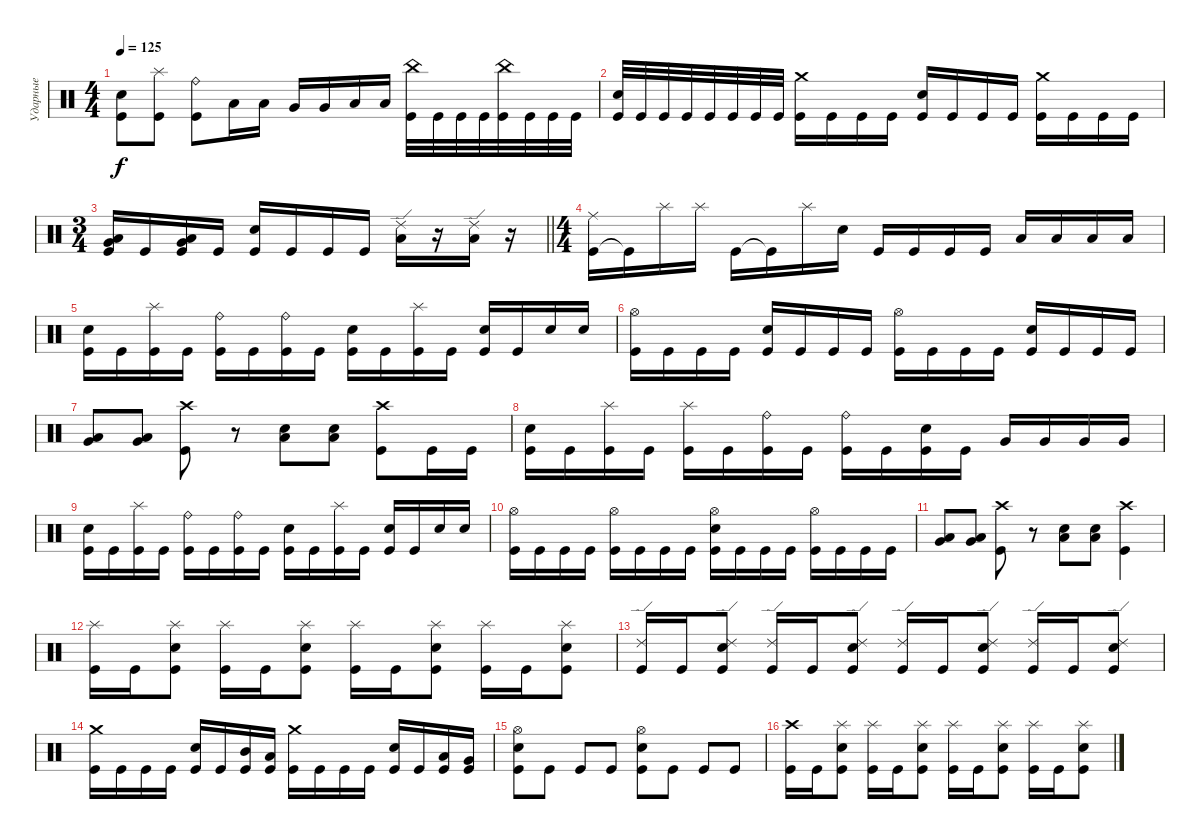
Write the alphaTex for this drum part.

\track ("Ударные" "Ударные") {instrument percussion}
\staff {score}
\articulation defaults
\ts (4 4)
\tempo 125
\clef neutral
\ks c
("Electric Snare (hit)" "Kick (hit)").8{dy f} ("Splash (hit)" "Kick (hit)").8 ("Ride (bell)" "Kick (hit)").8 "Low Tom (hit)".16 "Low Tom (hit)".16 "Very Low Tom (hit)".16 "Very Low Tom (hit)".16 "Low Floor Tom (hit)".16 "Low Floor Tom (hit)".16 ("China (hit)" "Kick (hit)").32 "Kick (hit)".32 "Kick (hit)".32 "Kick (hit)".32 ("China (hit)" "Kick (hit)").32 "Kick (hit)".32 "Kick (hit)".32 "Kick (hit)".32 |
("Electric Snare (hit)" "Kick (hit)").32 "Kick (hit)".32 "Kick (hit)".32 "Kick (hit)".32 "Kick (hit)".32 "Kick (hit)".32 "Kick (hit)".32 "Kick (hit)".32 ("Crash medium (hit)" "Kick (hit)").16 "Kick (hit)".16 "Kick (hit)".16 "Kick (hit)".16 ("Electric Snare (hit)" "Kick (hit)").16 "Kick (hit)".16 "Kick (hit)".16 "Kick (hit)".16 ("Crash medium (hit)" "Kick (hit)").16 "Kick (hit)".16 "Kick (hit)".16 "Kick (hit)".16 |
\ts (3 4)
\barLineRight lightlight
("Low Floor Tom (hit)" "Very Low Tom (hit)" "Kick (hit)").16 "Kick (hit)".16 ("Low Floor Tom (hit)" "Very Low Tom (hit)" "Kick (hit)").16 "Kick (hit)".16 ("Electric Snare (hit)" "Kick (hit)").16 "Kick (hit)".16 "Kick (hit)".16 "Kick (hit)".16 ("Ride (edge) 2" "Low Tom (hit)").16 r.16 ("Ride (edge) 2" "Low Tom (hit)").16 r.16 |
\ts (4 4)
("Kick (hit)" "Ride (middle)").16 "Kick (hit)"{t}.16 "Splash (hit)".16 "Splash (hit)".16 "Kick (hit)".16 "Kick (hit)"{t}.16 "Splash (hit)".16 "Electric Snare (hit)".16 "Kick (hit)".16 "Kick (hit)".16 "Kick (hit)".16 "Kick (hit)".16 "Low Tom (hit)".16 "Low Tom (hit)".16 "Low Tom (hit)".16 "Low Tom (hit)".16 |
("Electric Snare (hit)" "Kick (hit)").16 "Kick (hit)".16 ("Splash (hit)" "Kick (hit)").16 "Kick (hit)".16 ("Ride (bell)" "Kick (hit)").16 "Kick (hit)".16 ("Ride (bell)" "Kick (hit)").16 "Kick (hit)".16 ("Electric Snare (hit)" "Kick (hit)").16 "Kick (hit)".16 ("Splash (hit)" "Kick (hit)").16 "Kick (hit)".16 ("Electric Snare (hit)" "Kick (hit)").16 "Kick (hit)".16 "Electric Snare (hit)".16 "Electric Snare (hit)".16 |
("Hi-Hat (open)" "Kick (hit)").16 "Kick (hit)".16 "Kick (hit)".16 "Kick (hit)".16 ("Electric Snare (hit)" "Kick (hit)").16 "Kick (hit)".16 "Kick (hit)".16 "Kick (hit)".16 ("Hi-Hat (open)" "Kick (hit)").16 "Kick (hit)".16 "Kick (hit)".16 "Kick (hit)".16 ("Electric Snare (hit)" "Kick (hit)").16 "Kick (hit)".16 "Kick (hit)".16 "Kick (hit)".16 |
("Low Tom (hit)" "Very Low Tom (hit)").8 ("Low Tom (hit)" "Very Low Tom (hit)").8 ("Crash high (hit)" "Kick (hit)").8 r.8 ("Electric Snare (hit)" "Low Floor Tom (hit)").8 ("Electric Snare (hit)" "Low Floor Tom (hit)").8 ("Crash high (hit)" "Kick (hit)").8 "Kick (hit)".16 "Kick (hit)".16 |
("Electric Snare (hit)" "Kick (hit)").16 "Kick (hit)".16 ("Splash (hit)" "Kick (hit)").16 "Kick (hit)".16 ("Splash (hit)" "Kick (hit)").16 "Kick (hit)".16 ("Ride (bell)" "Kick (hit)").16 "Kick (hit)".16 ("Ride (bell)" "Kick (hit)").16 "Kick (hit)".16 ("Electric Snare (hit)" "Kick (hit)").16 "Kick (hit)".16 "Very Low Tom (hit)".16 "Very Low Tom (hit)".16 "Very Low Tom (hit)".16 "Very Low Tom (hit)".16 |
("Electric Snare (hit)" "Kick (hit)").16 "Kick (hit)".16 ("Splash (hit)" "Kick (hit)").16 "Kick (hit)".16 ("Ride (bell)" "Kick (hit)").16 "Kick (hit)".16 ("Ride (bell)" "Kick (hit)").16 "Kick (hit)".16 ("Electric Snare (hit)" "Kick (hit)").16 "Kick (hit)".16 ("Splash (hit)" "Kick (hit)").16 "Kick (hit)".16 ("Electric Snare (hit)" "Kick (hit)").16 "Kick (hit)".16 "Electric Snare (hit)".16 "Electric Snare (hit)".16 |
("Hi-Hat (open)" "Kick (hit)").16 "Kick (hit)".16 "Kick (hit)".16 "Kick (hit)".16 ("Hi-Hat (open)" "Kick (hit)").16 "Kick (hit)".16 "Kick (hit)".16 "Kick (hit)".16 ("Hi-Hat (open)" "Electric Snare (hit)" "Kick (hit)").16 "Kick (hit)".16 "Kick (hit)".16 "Kick (hit)".16 ("Hi-Hat (open)" "Kick (hit)").16 "Kick (hit)".16 "Kick (hit)".16 "Kick (hit)".16 |
("Low Tom (hit)" "Very Low Tom (hit)").8 ("Low Tom (hit)" "Very Low Tom (hit)").8 ("Crash high (hit)" "Kick (hit)").8 r.8 ("Electric Snare (hit)" "Low Floor Tom (hit)").8 ("Electric Snare (hit)" "Low Floor Tom (hit)").8 ("Crash high (hit)" "Kick (hit)").4 |
("Splash (hit)" "Kick (hit)").16 "Kick (hit)".16 ("Splash (hit)" "Electric Snare (hit)" "Kick (hit)").8 ("Splash (hit)" "Kick (hit)").16 "Kick (hit)".16 ("Splash (hit)" "Electric Snare (hit)" "Kick (hit)").8 ("Splash (hit)" "Kick (hit)").16 "Kick (hit)".16 ("Splash (hit)" "Electric Snare (hit)" "Kick (hit)").8 ("Splash (hit)" "Kick (hit)").16 "Kick (hit)".16 ("Splash (hit)" "Electric Snare (hit)" "Kick (hit)").8 |
("Ride (edge) 2" "Kick (hit)").16 "Kick (hit)".16 ("Ride (edge) 2" "Electric Snare (hit)" "Kick (hit)").8 ("Ride (edge) 2" "Kick (hit)").16 "Kick (hit)".16 ("Ride (edge) 2" "Electric Snare (hit)" "Kick (hit)").8 ("Ride (edge) 2" "Kick (hit)").16 "Kick (hit)".16 ("Ride (edge) 2" "Electric Snare (hit)" "Kick (hit)").8 ("Ride (edge) 2" "Kick (hit)").16 "Kick (hit)".16 ("Ride (edge) 2" "Electric Snare (hit)" "Kick (hit)").8 |
("Crash medium (hit)" "Kick (hit)").16 "Kick (hit)".16 "Kick (hit)".16 "Kick (hit)".16 ("Electric Snare (hit)" "Kick (hit)").16 "Kick (hit)".16 ("Mid Tom (hit)" "Kick (hit)").16 ("Low Tom (hit)" "Kick (hit)").16 ("Crash medium (hit)" "Kick (hit)").16 "Kick (hit)".16 "Kick (hit)".16 "Kick (hit)".16 ("Electric Snare (hit)" "Kick (hit)").16 "Kick (hit)".16 ("Low Tom (hit)" "Kick (hit)").16 ("Very Low Tom (hit)" "Kick (hit)").16 |
("Hi-Hat (open)" "Electric Snare (hit)" "Kick (hit)").8 "Kick (hit)".8 "Kick (hit)".8 "Kick (hit)".8 ("Hi-Hat (open)" "Kick (hit)" "Electric Snare (hit)").8 "Kick (hit)".8 "Kick (hit)".8 "Kick (hit)".8 |
("Crash high (hit)" "Kick (hit)").16 "Kick (hit)".16 ("Splash (hit)" "Electric Snare (hit)" "Kick (hit)").8 ("Splash (hit)" "Kick (hit)").16 "Kick (hit)".16 ("Splash (hit)" "Electric Snare (hit)" "Kick (hit)").8 ("Splash (hit)" "Kick (hit)").16 "Kick (hit)".16 ("Splash (hit)" "Electric Snare (hit)" "Kick (hit)").8 ("Splash (hit)" "Kick (hit)").16 "Kick (hit)".16 ("Splash (hit)" "Electric Snare (hit)" "Kick (hit)").8
